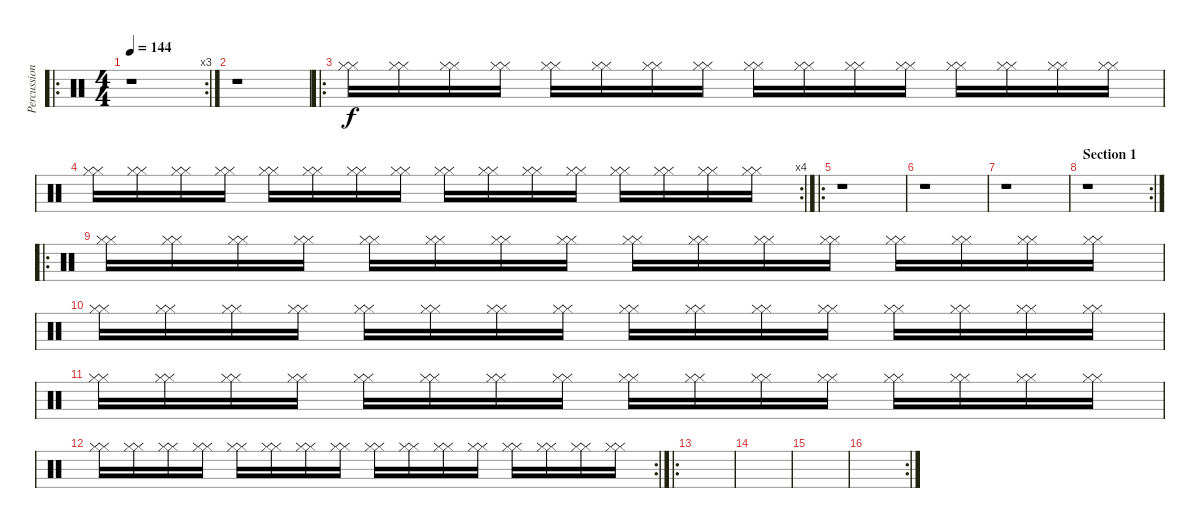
\track ("Percussion 3" "Percussion") {instrument percussion}
\staff {score}
\articulation defaults
\ro
\rc 3
\ts (4 4)
\tempo 144
\clef neutral
\ks c
r.1{dy f} |
r.1 |
\ro
("Hi-Hat (closed)" "Hi-Hat (closed)").16 ("Hi-Hat (closed)" "Hi-Hat (closed)").16 ("Hi-Hat (closed)" "Hi-Hat (closed)").16 ("Hi-Hat (closed)" "Hi-Hat (closed)").16 ("Hi-Hat (closed)" "Hi-Hat (closed)").16 ("Hi-Hat (closed)" "Hi-Hat (closed)").16 ("Hi-Hat (closed)" "Hi-Hat (closed)").16 ("Hi-Hat (closed)" "Hi-Hat (closed)").16 ("Hi-Hat (closed)" "Hi-Hat (closed)").16 ("Hi-Hat (closed)" "Hi-Hat (closed)").16 ("Hi-Hat (closed)" "Hi-Hat (closed)").16 ("Hi-Hat (closed)" "Hi-Hat (closed)").16 ("Hi-Hat (closed)" "Hi-Hat (closed)").16 ("Hi-Hat (closed)" "Hi-Hat (closed)").16 ("Hi-Hat (closed)" "Hi-Hat (closed)").16 ("Hi-Hat (closed)" "Hi-Hat (closed)").16 |
\rc 4
("Hi-Hat (closed)" "Hi-Hat (closed)").16 ("Hi-Hat (closed)" "Hi-Hat (closed)").16 ("Hi-Hat (closed)" "Hi-Hat (closed)").16 ("Hi-Hat (closed)" "Hi-Hat (closed)").16 ("Hi-Hat (closed)" "Hi-Hat (closed)").16 ("Hi-Hat (closed)" "Hi-Hat (closed)").16 ("Hi-Hat (closed)" "Hi-Hat (closed)").16 ("Hi-Hat (closed)" "Hi-Hat (closed)").16 ("Hi-Hat (closed)" "Hi-Hat (closed)").16 ("Hi-Hat (closed)" "Hi-Hat (closed)").16 ("Hi-Hat (closed)" "Hi-Hat (closed)").16 ("Hi-Hat (closed)" "Hi-Hat (closed)").16 ("Hi-Hat (closed)" "Hi-Hat (closed)").16 ("Hi-Hat (closed)" "Hi-Hat (closed)").16 ("Hi-Hat (closed)" "Hi-Hat (closed)").16 ("Hi-Hat (closed)" "Hi-Hat (closed)").16 |
\ro
r.1 |
r.1 |
r.1 |
\rc 2
\section ("" "Section 1")
r.1 |
\ro
("Hi-Hat (closed)" "Hi-Hat (closed)").16 ("Hi-Hat (closed)" "Hi-Hat (closed)").16 ("Hi-Hat (closed)" "Hi-Hat (closed)").16 ("Hi-Hat (closed)" "Hi-Hat (closed)").16 ("Hi-Hat (closed)" "Hi-Hat (closed)").16 ("Hi-Hat (closed)" "Hi-Hat (closed)").16 ("Hi-Hat (closed)" "Hi-Hat (closed)").16 ("Hi-Hat (closed)" "Hi-Hat (closed)").16 ("Hi-Hat (closed)" "Hi-Hat (closed)").16 ("Hi-Hat (closed)" "Hi-Hat (closed)").16 ("Hi-Hat (closed)" "Hi-Hat (closed)").16 ("Hi-Hat (closed)" "Hi-Hat (closed)").16 ("Hi-Hat (closed)" "Hi-Hat (closed)").16 ("Hi-Hat (closed)" "Hi-Hat (closed)").16 ("Hi-Hat (closed)" "Hi-Hat (closed)").16 ("Hi-Hat (closed)" "Hi-Hat (closed)").16 |
("Hi-Hat (closed)" "Hi-Hat (closed)").16 ("Hi-Hat (closed)" "Hi-Hat (closed)").16 ("Hi-Hat (closed)" "Hi-Hat (closed)").16 ("Hi-Hat (closed)" "Hi-Hat (closed)").16 ("Hi-Hat (closed)" "Hi-Hat (closed)").16 ("Hi-Hat (closed)" "Hi-Hat (closed)").16 ("Hi-Hat (closed)" "Hi-Hat (closed)").16 ("Hi-Hat (closed)" "Hi-Hat (closed)").16 ("Hi-Hat (closed)" "Hi-Hat (closed)").16 ("Hi-Hat (closed)" "Hi-Hat (closed)").16 ("Hi-Hat (closed)" "Hi-Hat (closed)").16 ("Hi-Hat (closed)" "Hi-Hat (closed)").16 ("Hi-Hat (closed)" "Hi-Hat (closed)").16 ("Hi-Hat (closed)" "Hi-Hat (closed)").16 ("Hi-Hat (closed)" "Hi-Hat (closed)").16 ("Hi-Hat (closed)" "Hi-Hat (closed)").16 |
("Hi-Hat (closed)" "Hi-Hat (closed)").16 ("Hi-Hat (closed)" "Hi-Hat (closed)").16 ("Hi-Hat (closed)" "Hi-Hat (closed)").16 ("Hi-Hat (closed)" "Hi-Hat (closed)").16 ("Hi-Hat (closed)" "Hi-Hat (closed)").16 ("Hi-Hat (closed)" "Hi-Hat (closed)").16 ("Hi-Hat (closed)" "Hi-Hat (closed)").16 ("Hi-Hat (closed)" "Hi-Hat (closed)").16 ("Hi-Hat (closed)" "Hi-Hat (closed)").16 ("Hi-Hat (closed)" "Hi-Hat (closed)").16 ("Hi-Hat (closed)" "Hi-Hat (closed)").16 ("Hi-Hat (closed)" "Hi-Hat (closed)").16 ("Hi-Hat (closed)" "Hi-Hat (closed)").16 ("Hi-Hat (closed)" "Hi-Hat (closed)").16 ("Hi-Hat (closed)" "Hi-Hat (closed)").16 ("Hi-Hat (closed)" "Hi-Hat (closed)").16 |
\rc 2
("Hi-Hat (closed)" "Hi-Hat (closed)").16 ("Hi-Hat (closed)" "Hi-Hat (closed)").16 ("Hi-Hat (closed)" "Hi-Hat (closed)").16 ("Hi-Hat (closed)" "Hi-Hat (closed)").16 ("Hi-Hat (closed)" "Hi-Hat (closed)").16 ("Hi-Hat (closed)" "Hi-Hat (closed)").16 ("Hi-Hat (closed)" "Hi-Hat (closed)").16 ("Hi-Hat (closed)" "Hi-Hat (closed)").16 ("Hi-Hat (closed)" "Hi-Hat (closed)").16 ("Hi-Hat (closed)" "Hi-Hat (closed)").16 ("Hi-Hat (closed)" "Hi-Hat (closed)").16 ("Hi-Hat (closed)" "Hi-Hat (closed)").16 ("Hi-Hat (closed)" "Hi-Hat (closed)").16 ("Hi-Hat (closed)" "Hi-Hat (closed)").16 ("Hi-Hat (closed)" "Hi-Hat (closed)").16 ("Hi-Hat (closed)" "Hi-Hat (closed)").16 |
\ro
|
|
|
\rc 2
